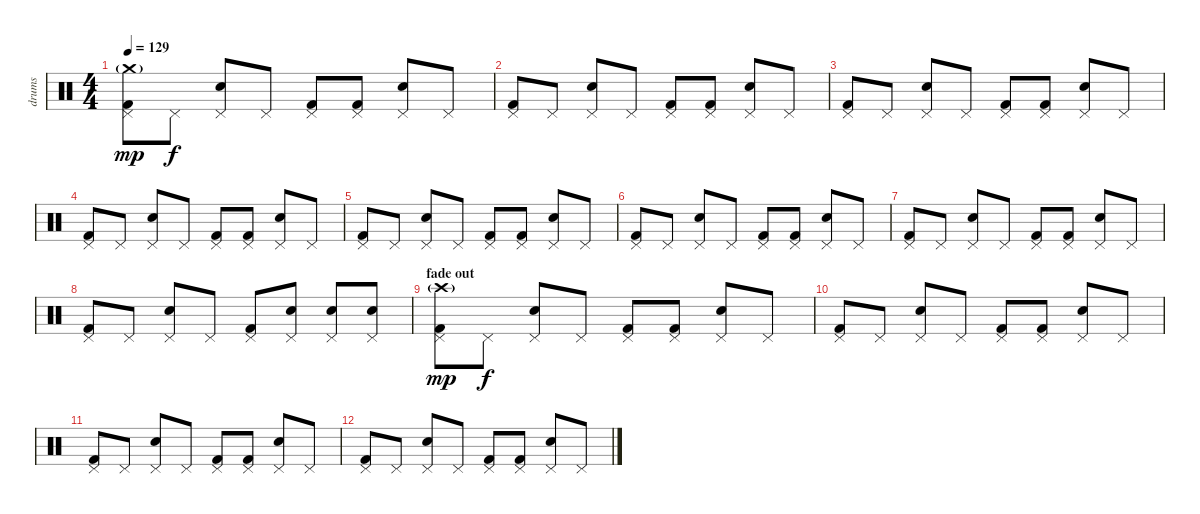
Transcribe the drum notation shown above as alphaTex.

\track ("drums" "drums") {instrument percussion}
\staff {score}
\articulation defaults
\ts (4 4)
\tempo 129
\clef neutral
\ks c
("Kick (hit) 2" "Pedal Hi-Hat (hit)" "Crash medium (hit)"{g}).8{dy mp} "Pedal Hi-Hat (hit)".8{dy f} ("Electric Snare (hit)" "Pedal Hi-Hat (hit)").8 "Pedal Hi-Hat (hit)".8 ("Kick (hit) 2" "Pedal Hi-Hat (hit)").8 ("Kick (hit) 2" "Pedal Hi-Hat (hit)").8 ("Electric Snare (hit)" "Pedal Hi-Hat (hit)").8 "Pedal Hi-Hat (hit)".8 |
("Kick (hit) 2" "Pedal Hi-Hat (hit)").8 "Pedal Hi-Hat (hit)".8 ("Electric Snare (hit)" "Pedal Hi-Hat (hit)").8 "Pedal Hi-Hat (hit)".8 ("Kick (hit) 2" "Pedal Hi-Hat (hit)").8 ("Kick (hit) 2" "Pedal Hi-Hat (hit)").8 ("Electric Snare (hit)" "Pedal Hi-Hat (hit)").8 "Pedal Hi-Hat (hit)".8 |
("Kick (hit) 2" "Pedal Hi-Hat (hit)").8 "Pedal Hi-Hat (hit)".8 ("Electric Snare (hit)" "Pedal Hi-Hat (hit)").8 "Pedal Hi-Hat (hit)".8 ("Kick (hit) 2" "Pedal Hi-Hat (hit)").8 ("Kick (hit) 2" "Pedal Hi-Hat (hit)").8 ("Electric Snare (hit)" "Pedal Hi-Hat (hit)").8 "Pedal Hi-Hat (hit)".8 |
("Kick (hit) 2" "Pedal Hi-Hat (hit)").8 "Pedal Hi-Hat (hit)".8 ("Electric Snare (hit)" "Pedal Hi-Hat (hit)").8 "Pedal Hi-Hat (hit)".8 ("Kick (hit) 2" "Pedal Hi-Hat (hit)").8 ("Kick (hit) 2" "Pedal Hi-Hat (hit)").8 ("Electric Snare (hit)" "Pedal Hi-Hat (hit)").8 "Pedal Hi-Hat (hit)".8 |
("Kick (hit) 2" "Pedal Hi-Hat (hit)").8 "Pedal Hi-Hat (hit)".8 ("Electric Snare (hit)" "Pedal Hi-Hat (hit)").8 "Pedal Hi-Hat (hit)".8 ("Kick (hit) 2" "Pedal Hi-Hat (hit)").8 ("Kick (hit) 2" "Pedal Hi-Hat (hit)").8 ("Electric Snare (hit)" "Pedal Hi-Hat (hit)").8 "Pedal Hi-Hat (hit)".8 |
("Kick (hit) 2" "Pedal Hi-Hat (hit)").8 "Pedal Hi-Hat (hit)".8 ("Electric Snare (hit)" "Pedal Hi-Hat (hit)").8 "Pedal Hi-Hat (hit)".8 ("Kick (hit) 2" "Pedal Hi-Hat (hit)").8 ("Kick (hit) 2" "Pedal Hi-Hat (hit)").8 ("Electric Snare (hit)" "Pedal Hi-Hat (hit)").8 "Pedal Hi-Hat (hit)".8 |
("Kick (hit) 2" "Pedal Hi-Hat (hit)").8 "Pedal Hi-Hat (hit)".8 ("Electric Snare (hit)" "Pedal Hi-Hat (hit)").8 "Pedal Hi-Hat (hit)".8 ("Kick (hit) 2" "Pedal Hi-Hat (hit)").8 ("Kick (hit) 2" "Pedal Hi-Hat (hit)").8 ("Electric Snare (hit)" "Pedal Hi-Hat (hit)").8 "Pedal Hi-Hat (hit)".8 |
("Kick (hit) 2" "Pedal Hi-Hat (hit)").8 "Pedal Hi-Hat (hit)".8 ("Electric Snare (hit)" "Pedal Hi-Hat (hit)").8 "Pedal Hi-Hat (hit)".8 ("Kick (hit) 2" "Pedal Hi-Hat (hit)").8 ("Electric Snare (hit)" "Pedal Hi-Hat (hit)").8 ("Electric Snare (hit)" "Pedal Hi-Hat (hit)").8 ("Electric Snare (hit)" "Pedal Hi-Hat (hit)").8 |
\section ("" "fade out")
("Kick (hit) 2" "Pedal Hi-Hat (hit)" "Crash high (hit)"{g}).8{dy mp} "Pedal Hi-Hat (hit)".8{dy f} ("Electric Snare (hit)" "Pedal Hi-Hat (hit)").8 "Pedal Hi-Hat (hit)".8 ("Kick (hit) 2" "Pedal Hi-Hat (hit)").8 ("Kick (hit) 2" "Pedal Hi-Hat (hit)").8 ("Electric Snare (hit)" "Pedal Hi-Hat (hit)").8 "Pedal Hi-Hat (hit)".8 |
("Kick (hit) 2" "Pedal Hi-Hat (hit)").8 "Pedal Hi-Hat (hit)".8 ("Electric Snare (hit)" "Pedal Hi-Hat (hit)").8 "Pedal Hi-Hat (hit)".8 ("Kick (hit) 2" "Pedal Hi-Hat (hit)").8 ("Kick (hit) 2" "Pedal Hi-Hat (hit)").8 ("Electric Snare (hit)" "Pedal Hi-Hat (hit)").8 "Pedal Hi-Hat (hit)".8 |
("Kick (hit) 2" "Pedal Hi-Hat (hit)").8 "Pedal Hi-Hat (hit)".8 ("Electric Snare (hit)" "Pedal Hi-Hat (hit)").8 "Pedal Hi-Hat (hit)".8 ("Kick (hit) 2" "Pedal Hi-Hat (hit)").8 ("Kick (hit) 2" "Pedal Hi-Hat (hit)").8 ("Electric Snare (hit)" "Pedal Hi-Hat (hit)").8 "Pedal Hi-Hat (hit)".8 |
("Kick (hit) 2" "Pedal Hi-Hat (hit)").8 "Pedal Hi-Hat (hit)".8 ("Electric Snare (hit)" "Pedal Hi-Hat (hit)").8 "Pedal Hi-Hat (hit)".8 ("Kick (hit) 2" "Pedal Hi-Hat (hit)").8 ("Kick (hit) 2" "Pedal Hi-Hat (hit)").8 ("Electric Snare (hit)" "Pedal Hi-Hat (hit)").8 "Pedal Hi-Hat (hit)".8
